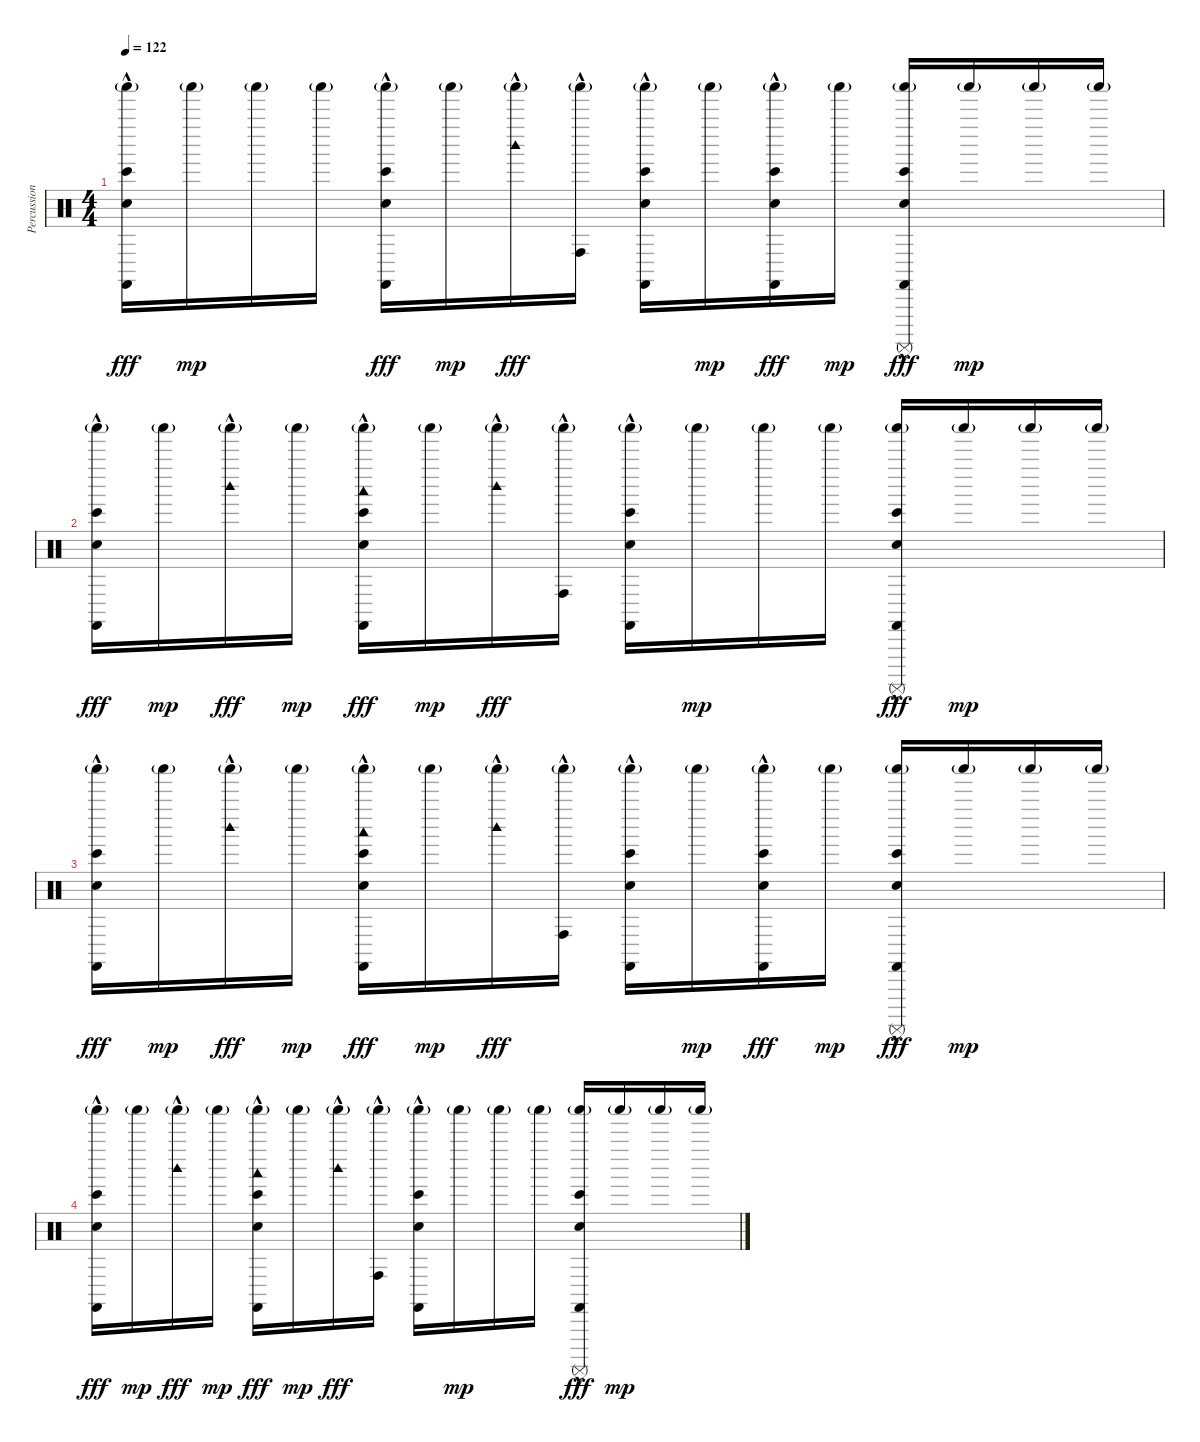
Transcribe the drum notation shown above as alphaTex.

\track ("Percussion" "Percussion") {instrument percussion}
\staff {score}
\articulation defaults
\ts (4 4)
\tempo 122
\clef neutral
\ks c
("Bongo High (hit)"{hac} "Castanets (hit)"{hac} "Shaker (hit)"{g} "Hand Clap (hit)"{hac}).16{dy fff} "Shaker (hit)"{g}.16{dy mp} "Shaker (hit)"{g}.16 "Shaker (hit)"{g}.16 ("Bongo High (hit)"{hac} "Castanets (hit)"{hac} "Shaker (hit)"{g} "Hand Clap (hit)"{hac}).16{dy fff} "Shaker (hit)"{g}.16{dy mp} ("Shaker (hit)"{g} "Woodblock high (hit)"{hac}).16{dy fff} ("Shaker (hit)"{g} "Conga high (hit)"{hac}).16 ("Bongo High (hit)"{hac} "Castanets (hit)"{hac} "Shaker (hit)"{g} "Hand Clap (hit)"{hac}).16 "Shaker (hit)"{g}.16{dy mp} ("Bongo High (hit)"{hac} "Castanets (hit)"{hac} "Shaker (hit)"{g} "Hand Clap (hit)"{hac}).16{dy fff} "Shaker (hit)"{g}.16{dy mp} ("Bongo High (hit)"{hac} "Castanets (hit)"{hac} "Shaker (hit)"{g} "Hand Clap (hit)"{hac} "Surdo (mute)"{hac}).16{dy fff} "Shaker (hit)"{g}.16{dy mp} "Shaker (hit)"{g}.16 "Shaker (hit)"{g}.16 |
("Bongo High (hit)"{hac} "Castanets (hit)"{hac} "Shaker (hit)"{g} "Hand Clap (hit)"{hac}).16{dy fff} "Shaker (hit)"{g}.16{dy mp} ("Shaker (hit)"{g} "Woodblock high (hit)"{hac}).16{dy fff} "Shaker (hit)"{g}.16{dy mp} ("Bongo High (hit)"{hac} "Castanets (hit)"{hac} "Shaker (hit)"{g} "Hand Clap (hit)"{hac} "Woodblock low (hit)"{hac}).16{dy fff} "Shaker (hit)"{g}.16{dy mp} ("Shaker (hit)"{g} "Woodblock high (hit)"{hac}).16{dy fff} ("Shaker (hit)"{g} "Conga high (hit)"{hac}).16 ("Bongo High (hit)"{hac} "Castanets (hit)"{hac} "Shaker (hit)"{g} "Hand Clap (hit)"{hac}).16 "Shaker (hit)"{g}.16{dy mp} "Shaker (hit)"{g}.16 "Shaker (hit)"{g}.16 ("Bongo High (hit)"{hac} "Castanets (hit)"{hac} "Shaker (hit)"{g} "Hand Clap (hit)"{hac} "Surdo (mute)"{hac}).16{dy fff} "Shaker (hit)"{g}.16{dy mp} "Shaker (hit)"{g}.16 "Shaker (hit)"{g}.16 |
("Bongo High (hit)"{hac} "Castanets (hit)"{hac} "Shaker (hit)"{g} "Hand Clap (hit)"{hac}).16{dy fff} "Shaker (hit)"{g}.16{dy mp} ("Shaker (hit)"{g} "Woodblock high (hit)"{hac}).16{dy fff} "Shaker (hit)"{g}.16{dy mp} ("Bongo High (hit)"{hac} "Castanets (hit)"{hac} "Shaker (hit)"{g} "Hand Clap (hit)"{hac} "Woodblock low (hit)"{hac}).16{dy fff} "Shaker (hit)"{g}.16{dy mp} ("Shaker (hit)"{g} "Woodblock high (hit)"{hac}).16{dy fff} ("Shaker (hit)"{g} "Conga high (hit)"{hac}).16 ("Bongo High (hit)"{hac} "Castanets (hit)"{hac} "Shaker (hit)"{g} "Hand Clap (hit)"{hac}).16 "Shaker (hit)"{g}.16{dy mp} ("Bongo High (hit)"{hac} "Castanets (hit)"{hac} "Shaker (hit)"{g} "Hand Clap (hit)"{hac}).16{dy fff} "Shaker (hit)"{g}.16{dy mp} ("Bongo High (hit)"{hac} "Castanets (hit)"{hac} "Shaker (hit)"{g} "Hand Clap (hit)"{hac} "Surdo (mute)"{hac}).16{dy fff} "Shaker (hit)"{g}.16{dy mp} "Shaker (hit)"{g}.16 "Shaker (hit)"{g}.16 |
("Bongo High (hit)"{hac} "Castanets (hit)"{hac} "Shaker (hit)"{g} "Hand Clap (hit)"{hac}).16{dy fff} "Shaker (hit)"{g}.16{dy mp} ("Shaker (hit)"{g} "Woodblock high (hit)"{hac}).16{dy fff} "Shaker (hit)"{g}.16{dy mp} ("Bongo High (hit)"{hac} "Castanets (hit)"{hac} "Shaker (hit)"{g} "Hand Clap (hit)"{hac} "Woodblock low (hit)"{hac}).16{dy fff} "Shaker (hit)"{g}.16{dy mp} ("Shaker (hit)"{g} "Woodblock high (hit)"{hac}).16{dy fff} ("Shaker (hit)"{g} "Conga high (hit)"{hac}).16 ("Bongo High (hit)"{hac} "Castanets (hit)"{hac} "Shaker (hit)"{g} "Hand Clap (hit)"{hac}).16 "Shaker (hit)"{g}.16{dy mp} "Shaker (hit)"{g}.16 "Shaker (hit)"{g}.16 ("Bongo High (hit)"{hac} "Castanets (hit)"{hac} "Shaker (hit)"{g} "Hand Clap (hit)"{hac} "Surdo (mute)"{hac}).16{dy fff} "Shaker (hit)"{g}.16{dy mp} "Shaker (hit)"{g}.16 "Shaker (hit)"{g}.16
